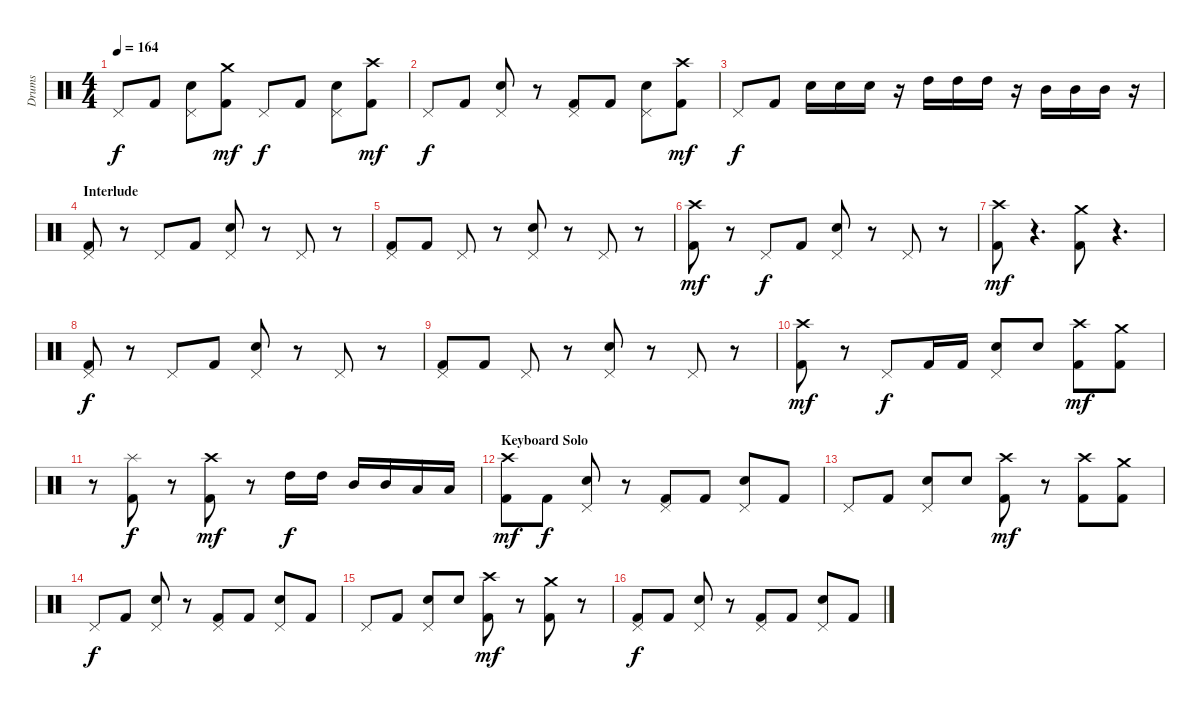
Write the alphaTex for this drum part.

\track ("Drums" "Drums") {instrument percussion}
\staff {score}
\articulation defaults
\ts (4 4)
\tempo 164
\clef neutral
\ks c "Pedal Hi-Hat (hit)".8{dy f} "Kick (hit) 2".8
("Pedal Hi-Hat (hit)" "Snare (hit) 2").8 ("Crash medium (hit)" "Kick (hit) 2").8{dy mf} "Pedal Hi-Hat (hit)".8{dy f} "Kick (hit) 2".8 ("Pedal Hi-Hat (hit)" "Snare (hit) 2").8 ("Crash high (hit)" "Kick (hit) 2").8{dy mf} |
"Pedal Hi-Hat (hit)".8{dy f} "Kick (hit) 2".8 ("Pedal Hi-Hat (hit)" "Snare (hit) 2").8 r.8 ("Pedal Hi-Hat (hit)" "Kick (hit) 2").8 "Kick (hit) 2".8 ("Pedal Hi-Hat (hit)" "Snare (hit) 2").8 ("Crash high (hit)" "Kick (hit) 2").8{dy mf} |
"Pedal Hi-Hat (hit)".8{dy f} "Kick (hit) 2".8 "Snare (hit) 2".16 "Snare (hit) 2".16 "Snare (hit) 2".16 r.16 "High Tom (hit)".16 "High Tom (hit)".16 "High Tom (hit)".16 r.16 "Mid Tom (hit)".16 "Mid Tom (hit)".16 "Mid Tom (hit)".16 r.16 |
\section ("" "Interlude")
("Pedal Hi-Hat (hit)" "Kick (hit) 2").8 r.8 "Pedal Hi-Hat (hit)".8 "Kick (hit) 2".8 ("Pedal Hi-Hat (hit)" "Snare (hit) 2").8 r.8 "Pedal Hi-Hat (hit)".8 r.8 |
("Pedal Hi-Hat (hit)" "Kick (hit) 2").8 "Kick (hit) 2".8 "Pedal Hi-Hat (hit)".8 r.8 ("Pedal Hi-Hat (hit)" "Snare (hit) 2").8 r.8 "Pedal Hi-Hat (hit)".8 r.8 |
("Crash high (hit)" "Kick (hit) 2").8{dy mf} r.8 "Pedal Hi-Hat (hit)".8{dy f} "Kick (hit) 2".8 ("Pedal Hi-Hat (hit)" "Snare (hit) 2").8 r.8 "Pedal Hi-Hat (hit)".8 r.8 |
("Crash high (hit)" "Kick (hit) 2").8{dy mf} r.4{d} ("Crash medium (hit)" "Kick (hit) 2").8 r.4{d} |
("Pedal Hi-Hat (hit)" "Kick (hit) 2").8{dy f} r.8 "Pedal Hi-Hat (hit)".8 "Kick (hit) 2".8 ("Pedal Hi-Hat (hit)" "Snare (hit) 2").8 r.8 "Pedal Hi-Hat (hit)".8 r.8 |
("Pedal Hi-Hat (hit)" "Kick (hit) 2").8 "Kick (hit) 2".8 "Pedal Hi-Hat (hit)".8 r.8 ("Pedal Hi-Hat (hit)" "Snare (hit) 2").8 r.8 "Pedal Hi-Hat (hit)".8 r.8 |
("Crash high (hit)" "Kick (hit) 2").8{dy mf} r.8 "Pedal Hi-Hat (hit)".8{dy f} "Kick (hit) 2".16 "Kick (hit) 2".16 ("Pedal Hi-Hat (hit)" "Snare (hit) 2").8 "Snare (hit) 2".8 ("Crash high (hit)" "Kick (hit) 2").8{dy mf} ("Crash medium (hit)" "Kick (hit) 2").8 |
\section ("" "")
r.8 ("Splash (hit)" "Kick (hit) 2").8{dy f} r.8 ("Crash high (hit)" "Kick (hit) 2").8{dy mf} r.8 "High Tom (hit)".16{dy f} "High Tom (hit)".16 "Mid Tom (hit)".16 "Mid Tom (hit)".16 "Low Tom (hit)".16 "Low Tom (hit)".16 |
\section ("" "Keyboard Solo")
("Crash high (hit)" "Kick (hit) 2").8{dy mf} "Kick (hit) 2".8{dy f} ("Pedal Hi-Hat (hit)" "Snare (hit) 2").8 r.8 ("Pedal Hi-Hat (hit)" "Kick (hit) 2").8 "Kick (hit) 2".8 ("Pedal Hi-Hat (hit)" "Snare (hit) 2").8 "Kick (hit) 2".8 |
"Pedal Hi-Hat (hit)".8 "Kick (hit) 2".8 ("Pedal Hi-Hat (hit)" "Snare (hit) 2").8 "Snare (hit) 2".8 ("Crash high (hit)" "Kick (hit) 2").8{dy mf} r.8 ("Crash high (hit)" "Kick (hit) 2").8 ("Crash medium (hit)" "Kick (hit) 2").8 |
"Pedal Hi-Hat (hit)".8{dy f} "Kick (hit) 2".8 ("Pedal Hi-Hat (hit)" "Snare (hit) 2").8 r.8 ("Pedal Hi-Hat (hit)" "Kick (hit) 2").8 "Kick (hit) 2".8 ("Pedal Hi-Hat (hit)" "Snare (hit) 2").8 "Kick (hit) 2".8 |
"Pedal Hi-Hat (hit)".8 "Kick (hit) 2".8 ("Pedal Hi-Hat (hit)" "Snare (hit) 2").8 "Snare (hit) 2".8 ("Crash high (hit)" "Kick (hit) 2").8{dy mf} r.8 ("Crash medium (hit)" "Kick (hit) 2").8 r.8 |
("Pedal Hi-Hat (hit)" "Kick (hit) 2").8{dy f} "Kick (hit) 2".8 ("Pedal Hi-Hat (hit)" "Snare (hit) 2").8 r.8 ("Pedal Hi-Hat (hit)" "Kick (hit) 2").8 "Kick (hit) 2".8 ("Pedal Hi-Hat (hit)" "Snare (hit) 2").8 "Kick (hit) 2".8
